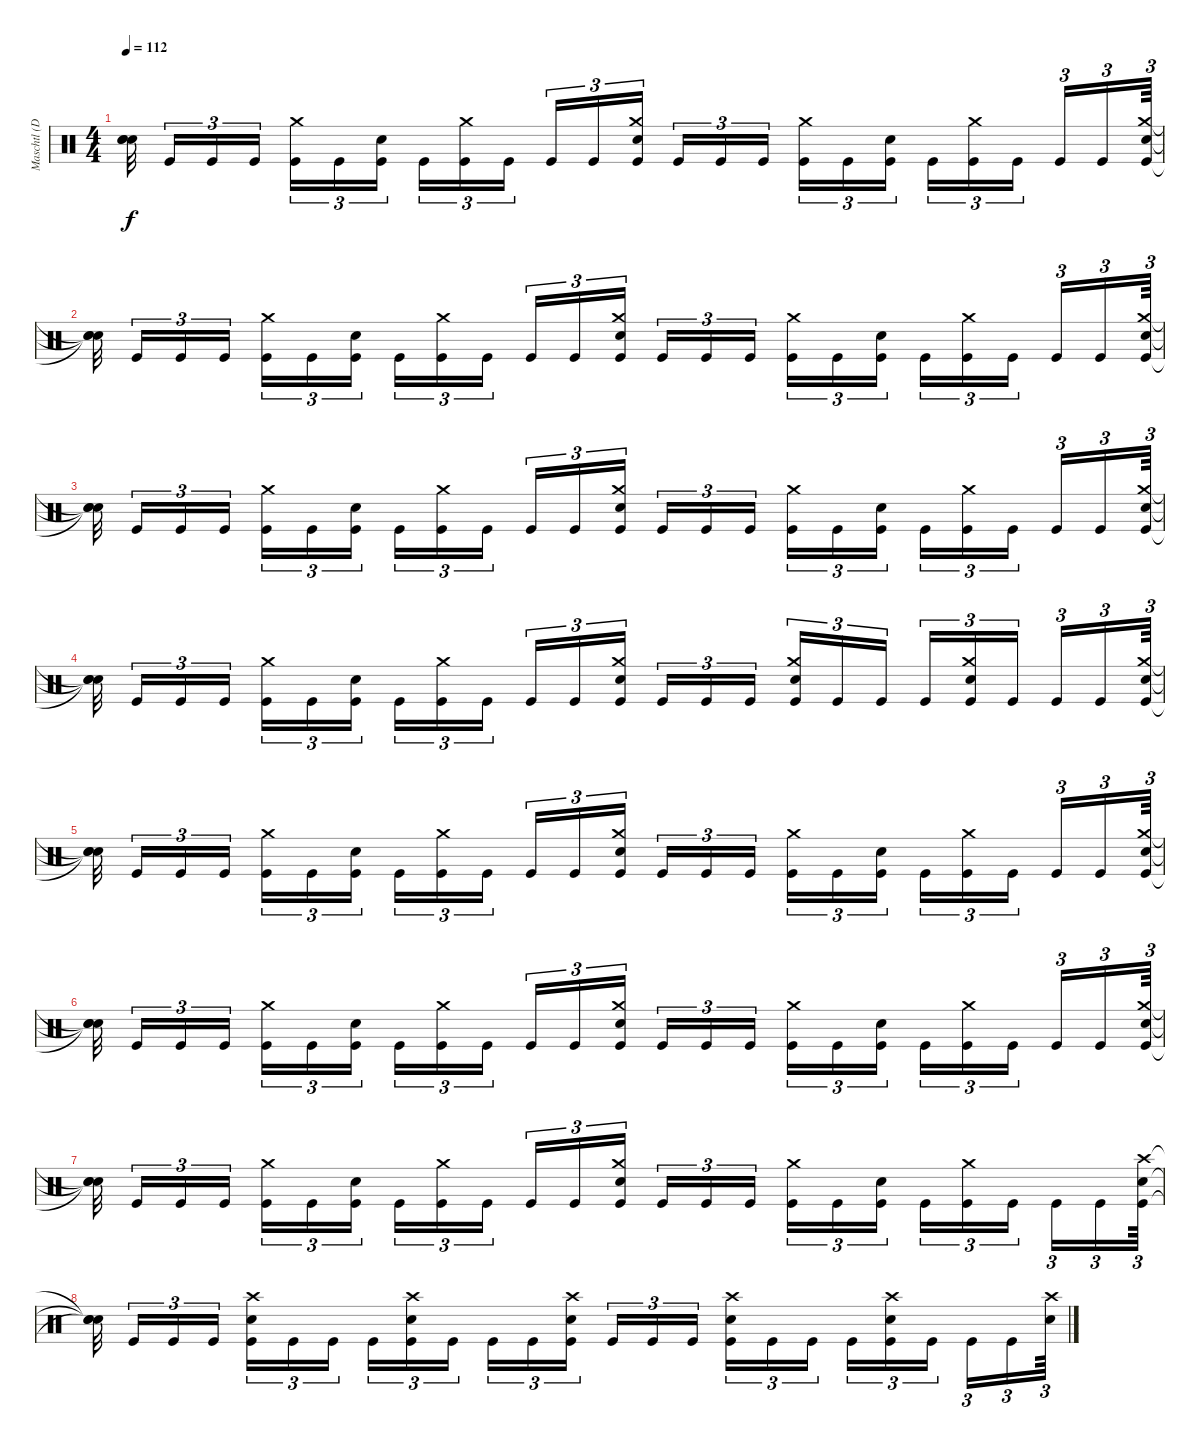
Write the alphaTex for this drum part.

\track ("Maschtl (Drums)" "Maschtl (D") {instrument percussion}
\staff {score}
\articulation defaults
\ts (4 4)
\tempo 112
\clef neutral
\ks c
("Snare (hit)"{t} "Snare (hit)"{t} "Snare (hit)"{t}).32{dy f} "Kick (hit)".16{tu (3 2)} "Kick (hit)".16{tu (3 2)} "Kick (hit)".16{tu (3 2)} ("Crash medium (hit)" "Kick (hit)").16{tu (3 2)} "Kick (hit)".16{tu (3 2)} ("Electric Snare (hit)" "Kick (hit)").16{tu (3 2)} "Kick (hit)".16{tu (3 2)} ("Crash medium (hit)" "Kick (hit)").16{tu (3 2)} "Kick (hit)".16{tu (3 2)} "Kick (hit)".16{tu (3 2)} "Kick (hit)".16{tu (3 2)} ("Crash medium (hit)" "Electric Snare (hit)" "Kick (hit)").16{tu (3 2)} "Kick (hit)".16{tu (3 2)} "Kick (hit)".16{tu (3 2)} "Kick (hit)".16{tu (3 2)} ("Crash medium (hit)" "Kick (hit)").16{tu (3 2)} "Kick (hit)".16{tu (3 2)} ("Electric Snare (hit)" "Kick (hit)").16{tu (3 2)} "Kick (hit)".16{tu (3 2)} ("Crash medium (hit)" "Kick (hit)").16{tu (3 2)} "Kick (hit)".16{tu (3 2)} "Kick (hit)".16{tu (3 2)} "Kick (hit)".16{tu (3 2)} ("Crash medium (hit)" "Electric Snare (hit)" "Kick (hit)").64{tu (3 2)} |
("Snare (hit)"{t} "Snare (hit)"{t} "Snare (hit)"{t}).32 "Kick (hit)".16{tu (3 2)} "Kick (hit)".16{tu (3 2)} "Kick (hit)".16{tu (3 2)} ("Crash medium (hit)" "Kick (hit)").16{tu (3 2)} "Kick (hit)".16{tu (3 2)} ("Electric Snare (hit)" "Kick (hit)").16{tu (3 2)} "Kick (hit)".16{tu (3 2)} ("Crash medium (hit)" "Kick (hit)").16{tu (3 2)} "Kick (hit)".16{tu (3 2)} "Kick (hit)".16{tu (3 2)} "Kick (hit)".16{tu (3 2)} ("Crash medium (hit)" "Electric Snare (hit)" "Kick (hit)").16{tu (3 2)} "Kick (hit)".16{tu (3 2)} "Kick (hit)".16{tu (3 2)} "Kick (hit)".16{tu (3 2)} ("Crash medium (hit)" "Kick (hit)").16{tu (3 2)} "Kick (hit)".16{tu (3 2)} ("Electric Snare (hit)" "Kick (hit)").16{tu (3 2)} "Kick (hit)".16{tu (3 2)} ("Crash medium (hit)" "Kick (hit)").16{tu (3 2)} "Kick (hit)".16{tu (3 2)} "Kick (hit)".16{tu (3 2)} "Kick (hit)".16{tu (3 2)} ("Crash medium (hit)" "Electric Snare (hit)" "Kick (hit)").64{tu (3 2)} |
("Snare (hit)"{t} "Snare (hit)"{t} "Snare (hit)"{t}).32 "Kick (hit)".16{tu (3 2)} "Kick (hit)".16{tu (3 2)} "Kick (hit)".16{tu (3 2)} ("Crash medium (hit)" "Kick (hit)").16{tu (3 2)} "Kick (hit)".16{tu (3 2)} ("Electric Snare (hit)" "Kick (hit)").16{tu (3 2)} "Kick (hit)".16{tu (3 2)} ("Crash medium (hit)" "Kick (hit)").16{tu (3 2)} "Kick (hit)".16{tu (3 2)} "Kick (hit)".16{tu (3 2)} "Kick (hit)".16{tu (3 2)} ("Crash medium (hit)" "Electric Snare (hit)" "Kick (hit)").16{tu (3 2)} "Kick (hit)".16{tu (3 2)} "Kick (hit)".16{tu (3 2)} "Kick (hit)".16{tu (3 2)} ("Crash medium (hit)" "Kick (hit)").16{tu (3 2)} "Kick (hit)".16{tu (3 2)} ("Electric Snare (hit)" "Kick (hit)").16{tu (3 2)} "Kick (hit)".16{tu (3 2)} ("Crash medium (hit)" "Kick (hit)").16{tu (3 2)} "Kick (hit)".16{tu (3 2)} "Kick (hit)".16{tu (3 2)} "Kick (hit)".16{tu (3 2)} ("Crash medium (hit)" "Electric Snare (hit)" "Kick (hit)").64{tu (3 2)} |
("Snare (hit)"{t} "Snare (hit)"{t} "Snare (hit)"{t}).32 "Kick (hit)".16{tu (3 2)} "Kick (hit)".16{tu (3 2)} "Kick (hit)".16{tu (3 2)} ("Crash medium (hit)" "Kick (hit)").16{tu (3 2)} "Kick (hit)".16{tu (3 2)} ("Electric Snare (hit)" "Kick (hit)").16{tu (3 2)} "Kick (hit)".16{tu (3 2)} ("Crash medium (hit)" "Kick (hit)").16{tu (3 2)} "Kick (hit)".16{tu (3 2)} "Kick (hit)".16{tu (3 2)} "Kick (hit)".16{tu (3 2)} ("Crash medium (hit)" "Electric Snare (hit)" "Kick (hit)").16{tu (3 2)} "Kick (hit)".16{tu (3 2)} "Kick (hit)".16{tu (3 2)} "Kick (hit)".16{tu (3 2)} ("Crash medium (hit)" "Electric Snare (hit)" "Kick (hit)").16{tu (3 2)} "Kick (hit)".16{tu (3 2)} "Kick (hit)".16{tu (3 2)} "Kick (hit)".16{tu (3 2)} ("Crash medium (hit)" "Electric Snare (hit)" "Kick (hit)").16{tu (3 2)} "Kick (hit)".16{tu (3 2)} "Kick (hit)".16{tu (3 2)} "Kick (hit)".16{tu (3 2)} ("Crash medium (hit)" "Electric Snare (hit)" "Kick (hit)").64{tu (3 2)} |
("Snare (hit)"{t} "Snare (hit)"{t} "Snare (hit)"{t}).32 "Kick (hit)".16{tu (3 2)} "Kick (hit)".16{tu (3 2)} "Kick (hit)".16{tu (3 2)} ("Crash medium (hit)" "Kick (hit)").16{tu (3 2)} "Kick (hit)".16{tu (3 2)} ("Electric Snare (hit)" "Kick (hit)").16{tu (3 2)} "Kick (hit)".16{tu (3 2)} ("Crash medium (hit)" "Kick (hit)").16{tu (3 2)} "Kick (hit)".16{tu (3 2)} "Kick (hit)".16{tu (3 2)} "Kick (hit)".16{tu (3 2)} ("Crash medium (hit)" "Electric Snare (hit)" "Kick (hit)").16{tu (3 2)} "Kick (hit)".16{tu (3 2)} "Kick (hit)".16{tu (3 2)} "Kick (hit)".16{tu (3 2)} ("Crash medium (hit)" "Kick (hit)").16{tu (3 2)} "Kick (hit)".16{tu (3 2)} ("Electric Snare (hit)" "Kick (hit)").16{tu (3 2)} "Kick (hit)".16{tu (3 2)} ("Crash medium (hit)" "Kick (hit)").16{tu (3 2)} "Kick (hit)".16{tu (3 2)} "Kick (hit)".16{tu (3 2)} "Kick (hit)".16{tu (3 2)} ("Crash medium (hit)" "Electric Snare (hit)" "Kick (hit)").64{tu (3 2)} |
("Snare (hit)"{t} "Snare (hit)"{t} "Snare (hit)"{t}).32 "Kick (hit)".16{tu (3 2)} "Kick (hit)".16{tu (3 2)} "Kick (hit)".16{tu (3 2)} ("Crash medium (hit)" "Kick (hit)").16{tu (3 2)} "Kick (hit)".16{tu (3 2)} ("Electric Snare (hit)" "Kick (hit)").16{tu (3 2)} "Kick (hit)".16{tu (3 2)} ("Crash medium (hit)" "Kick (hit)").16{tu (3 2)} "Kick (hit)".16{tu (3 2)} "Kick (hit)".16{tu (3 2)} "Kick (hit)".16{tu (3 2)} ("Crash medium (hit)" "Electric Snare (hit)" "Kick (hit)").16{tu (3 2)} "Kick (hit)".16{tu (3 2)} "Kick (hit)".16{tu (3 2)} "Kick (hit)".16{tu (3 2)} ("Crash medium (hit)" "Kick (hit)").16{tu (3 2)} "Kick (hit)".16{tu (3 2)} ("Electric Snare (hit)" "Kick (hit)").16{tu (3 2)} "Kick (hit)".16{tu (3 2)} ("Crash medium (hit)" "Kick (hit)").16{tu (3 2)} "Kick (hit)".16{tu (3 2)} "Kick (hit)".16{tu (3 2)} "Kick (hit)".16{tu (3 2)} ("Crash medium (hit)" "Electric Snare (hit)" "Kick (hit)").64{tu (3 2)} |
("Snare (hit)"{t} "Snare (hit)"{t} "Snare (hit)"{t}).32 "Kick (hit)".16{tu (3 2)} "Kick (hit)".16{tu (3 2)} "Kick (hit)".16{tu (3 2)} ("Crash medium (hit)" "Kick (hit)").16{tu (3 2)} "Kick (hit)".16{tu (3 2)} ("Electric Snare (hit)" "Kick (hit)").16{tu (3 2)} "Kick (hit)".16{tu (3 2)} ("Crash medium (hit)" "Kick (hit)").16{tu (3 2)} "Kick (hit)".16{tu (3 2)} "Kick (hit)".16{tu (3 2)} "Kick (hit)".16{tu (3 2)} ("Crash medium (hit)" "Electric Snare (hit)" "Kick (hit)").16{tu (3 2)} "Kick (hit)".16{tu (3 2)} "Kick (hit)".16{tu (3 2)} "Kick (hit)".16{tu (3 2)} ("Crash medium (hit)" "Kick (hit)").16{tu (3 2)} "Kick (hit)".16{tu (3 2)} ("Electric Snare (hit)" "Kick (hit)").16{tu (3 2)} "Kick (hit)".16{tu (3 2)} ("Crash medium (hit)" "Kick (hit)").16{tu (3 2)} "Kick (hit)".16{tu (3 2)} "Kick (hit)".16{tu (3 2)} "Kick (hit)".16{tu (3 2)} ("Crash high (hit)" "Electric Snare (hit)" "Kick (hit)").64{tu (3 2)} |
("Snare (hit)"{t} "Snare (hit)"{t} "Snare (hit)"{t}).32 "Kick (hit)".16{tu (3 2)} "Kick (hit)".16{tu (3 2)} "Kick (hit)".16{tu (3 2)} ("Crash high (hit)" "Electric Snare (hit)" "Kick (hit)").16{tu (3 2)} "Kick (hit)".16{tu (3 2)} "Kick (hit)".16{tu (3 2)} "Kick (hit)".16{tu (3 2)} ("Crash high (hit)" "Electric Snare (hit)" "Kick (hit)").16{tu (3 2)} "Kick (hit)".16{tu (3 2)} "Kick (hit)".16{tu (3 2)} "Kick (hit)".16{tu (3 2)} ("Crash high (hit)" "Electric Snare (hit)" "Kick (hit)").16{tu (3 2)} "Kick (hit)".16{tu (3 2)} "Kick (hit)".16{tu (3 2)} "Kick (hit)".16{tu (3 2)} ("Crash high (hit)" "Electric Snare (hit)" "Kick (hit)").16{tu (3 2)} "Kick (hit)".16{tu (3 2)} "Kick (hit)".16{tu (3 2)} "Kick (hit)".16{tu (3 2)} ("Crash high (hit)" "Electric Snare (hit)" "Kick (hit)").16{tu (3 2)} "Kick (hit)".16{tu (3 2)} "Kick (hit)".16{tu (3 2)} "Kick (hit)".16{tu (3 2)} ("Crash high (hit)" "Electric Snare (hit)").64{tu (3 2)}
